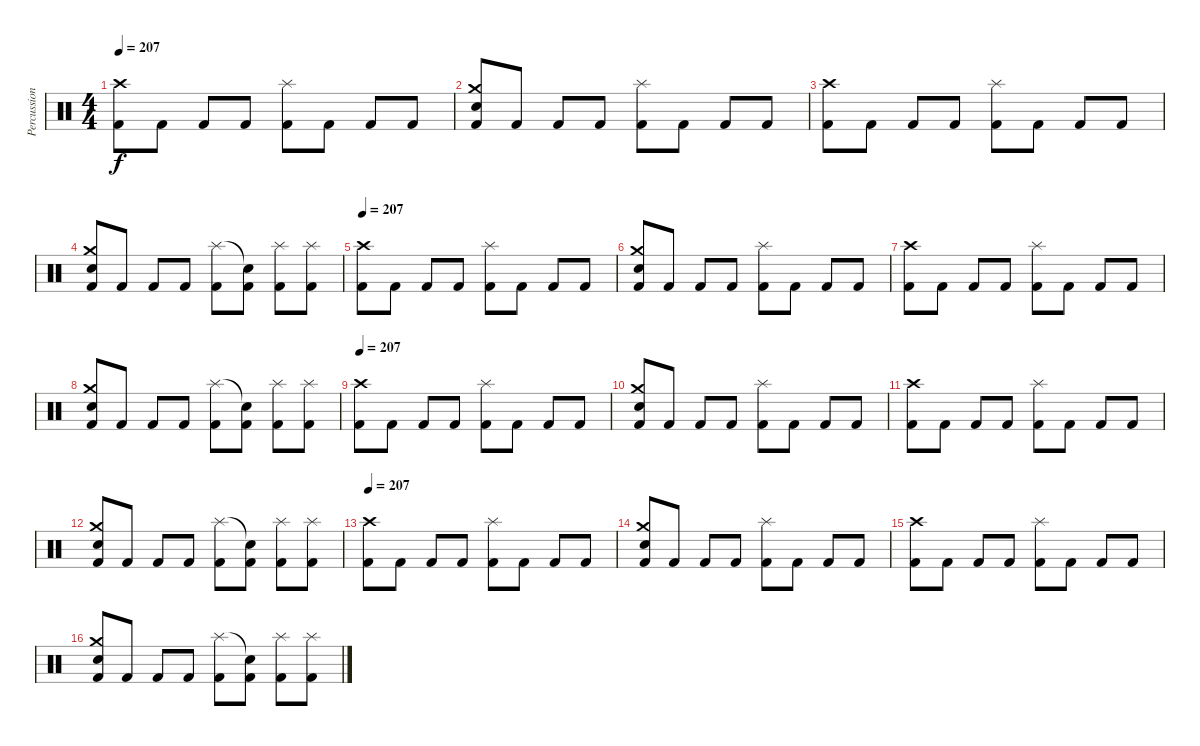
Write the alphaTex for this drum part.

\track ("Percussion" "Percussion") {instrument percussion}
\staff {score}
\articulation defaults
\ts (4 4)
\tempo 207
\clef neutral
\ks c
("Crash high (hit)" "Kick (hit) 2").8{dy f} "Kick (hit) 2".8 "Kick (hit) 2".8 "Kick (hit) 2".8 ("Splash (hit)" "Kick (hit) 2").8 "Kick (hit) 2".8 "Kick (hit) 2".8 "Kick (hit) 2".8 |
("Crash medium (hit)" "Electric Snare (hit)" "Kick (hit) 2").8 "Kick (hit) 2".8 "Kick (hit) 2".8 "Kick (hit) 2".8 ("Splash (hit)" "Kick (hit) 2").8 "Kick (hit) 2".8 "Kick (hit) 2".8 "Kick (hit) 2".8 |
("Crash high (hit)" "Kick (hit) 2").8 "Kick (hit) 2".8 "Kick (hit) 2".8 "Kick (hit) 2".8 ("Splash (hit)" "Kick (hit) 2").8 "Kick (hit) 2".8 "Kick (hit) 2".8 "Kick (hit) 2".8 |
("Crash medium (hit)" "Electric Snare (hit)" "Kick (hit) 2").8 "Kick (hit) 2".8 "Kick (hit) 2".8 "Kick (hit) 2".8 ("Splash (hit)" "Kick (hit) 2").8 ("Snare (hit)"{t} "Kick (hit) 2").8 ("Splash (hit)" "Kick (hit) 2").8 ("Splash (hit)" "Kick (hit) 2").8 |
\tempo 207
("Crash high (hit)" "Kick (hit) 2").8 "Kick (hit) 2".8 "Kick (hit) 2".8 "Kick (hit) 2".8 ("Splash (hit)" "Kick (hit) 2").8 "Kick (hit) 2".8 "Kick (hit) 2".8 "Kick (hit) 2".8 |
("Crash medium (hit)" "Electric Snare (hit)" "Kick (hit) 2").8 "Kick (hit) 2".8 "Kick (hit) 2".8 "Kick (hit) 2".8 ("Splash (hit)" "Kick (hit) 2").8 "Kick (hit) 2".8 "Kick (hit) 2".8 "Kick (hit) 2".8 |
("Crash high (hit)" "Kick (hit) 2").8 "Kick (hit) 2".8 "Kick (hit) 2".8 "Kick (hit) 2".8 ("Splash (hit)" "Kick (hit) 2").8 "Kick (hit) 2".8 "Kick (hit) 2".8 "Kick (hit) 2".8 |
("Crash medium (hit)" "Electric Snare (hit)" "Kick (hit) 2").8 "Kick (hit) 2".8 "Kick (hit) 2".8 "Kick (hit) 2".8 ("Splash (hit)" "Kick (hit) 2").8 ("Snare (hit)"{t} "Kick (hit) 2").8 ("Splash (hit)" "Kick (hit) 2").8 ("Splash (hit)" "Kick (hit) 2").8 |
\tempo 207
("Crash high (hit)" "Kick (hit) 2").8 "Kick (hit) 2".8 "Kick (hit) 2".8 "Kick (hit) 2".8 ("Splash (hit)" "Kick (hit) 2").8 "Kick (hit) 2".8 "Kick (hit) 2".8 "Kick (hit) 2".8 |
("Crash medium (hit)" "Electric Snare (hit)" "Kick (hit) 2").8 "Kick (hit) 2".8 "Kick (hit) 2".8 "Kick (hit) 2".8 ("Splash (hit)" "Kick (hit) 2").8 "Kick (hit) 2".8 "Kick (hit) 2".8 "Kick (hit) 2".8 |
("Crash high (hit)" "Kick (hit) 2").8 "Kick (hit) 2".8 "Kick (hit) 2".8 "Kick (hit) 2".8 ("Splash (hit)" "Kick (hit) 2").8 "Kick (hit) 2".8 "Kick (hit) 2".8 "Kick (hit) 2".8 |
("Crash medium (hit)" "Electric Snare (hit)" "Kick (hit) 2").8 "Kick (hit) 2".8 "Kick (hit) 2".8 "Kick (hit) 2".8 ("Splash (hit)" "Kick (hit) 2").8 ("Snare (hit)"{t} "Kick (hit) 2").8 ("Splash (hit)" "Kick (hit) 2").8 ("Splash (hit)" "Kick (hit) 2").8 |
\tempo 207
("Crash high (hit)" "Kick (hit) 2").8 "Kick (hit) 2".8 "Kick (hit) 2".8 "Kick (hit) 2".8 ("Splash (hit)" "Kick (hit) 2").8 "Kick (hit) 2".8 "Kick (hit) 2".8 "Kick (hit) 2".8 |
("Crash medium (hit)" "Electric Snare (hit)" "Kick (hit) 2").8 "Kick (hit) 2".8 "Kick (hit) 2".8 "Kick (hit) 2".8 ("Splash (hit)" "Kick (hit) 2").8 "Kick (hit) 2".8 "Kick (hit) 2".8 "Kick (hit) 2".8 |
("Crash high (hit)" "Kick (hit) 2").8 "Kick (hit) 2".8 "Kick (hit) 2".8 "Kick (hit) 2".8 ("Splash (hit)" "Kick (hit) 2").8 "Kick (hit) 2".8 "Kick (hit) 2".8 "Kick (hit) 2".8 |
("Crash medium (hit)" "Electric Snare (hit)" "Kick (hit) 2").8 "Kick (hit) 2".8 "Kick (hit) 2".8 "Kick (hit) 2".8 ("Splash (hit)" "Kick (hit) 2").8 ("Snare (hit)"{t} "Kick (hit) 2").8 ("Splash (hit)" "Kick (hit) 2").8 ("Splash (hit)" "Kick (hit) 2").8
